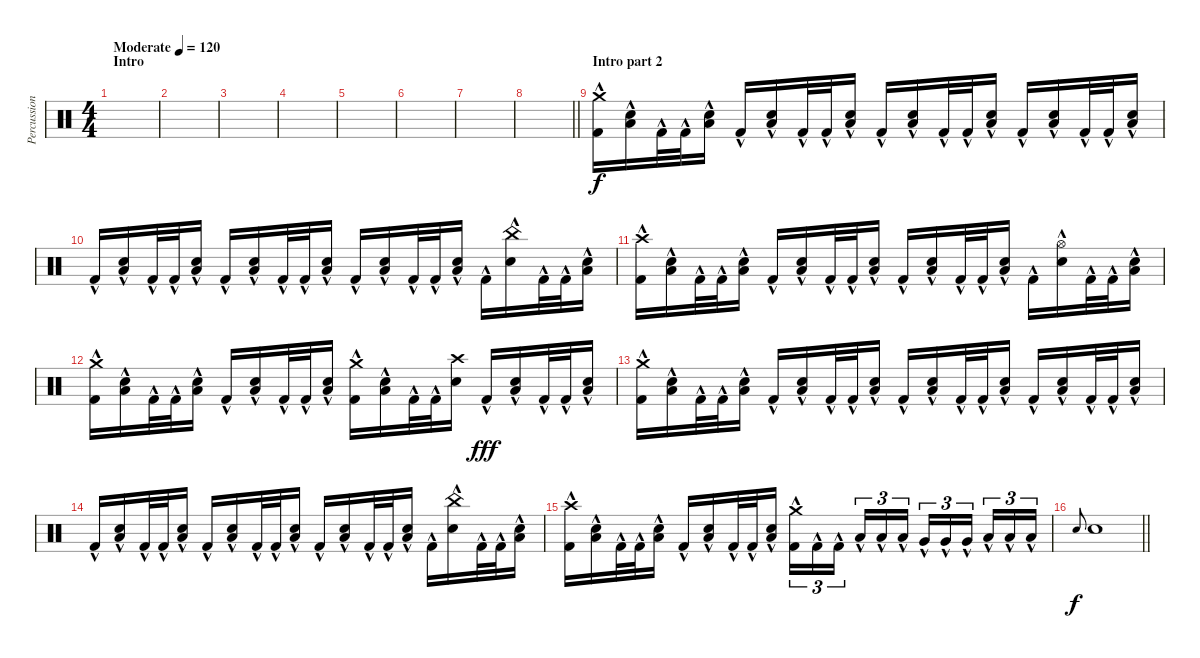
\track ("Percussion" "Percussion") {instrument percussion}
\staff {score}
\articulation defaults
\ts (4 4)
\section ("" "Intro")
\tempo (120 "Moderate")
\clef neutral
\ks c
|
|
|
|
|
|
|
\barLineRight lightlight
|
\section ("" "Intro part 2")
("Crash medium (hit)" "Kick (hit) 2"{hac}).16 ("Low Floor Tom (hit)"{hac} "Snare (hit) 2").16 "Kick (hit) 2"{hac}.32 "Kick (hit) 2"{hac}.32 ("Low Floor Tom (hit)"{hac} "Snare (hit) 2").16 "Kick (hit) 2"{hac}.16 ("Low Floor Tom (hit)"{hac} "Snare (hit) 2").16 "Kick (hit) 2"{hac}.32 "Kick (hit) 2"{hac}.32 ("Low Floor Tom (hit)"{hac} "Snare (hit) 2").16 "Kick (hit) 2"{hac}.16 ("Low Floor Tom (hit)"{hac} "Snare (hit) 2").16 "Kick (hit) 2"{hac}.32 "Kick (hit) 2"{hac}.32 ("Low Floor Tom (hit)"{hac} "Snare (hit) 2").16 "Kick (hit) 2"{hac}.16 ("Low Floor Tom (hit)"{hac} "Snare (hit) 2").16 "Kick (hit) 2"{hac}.32 "Kick (hit) 2"{hac}.32 ("Low Floor Tom (hit)"{hac} "Snare (hit) 2").16 |
"Kick (hit) 2"{hac}.16 ("Low Floor Tom (hit)"{hac} "Snare (hit) 2").16 "Kick (hit) 2"{hac}.32 "Kick (hit) 2"{hac}.32 ("Low Floor Tom (hit)"{hac} "Snare (hit) 2").16 "Kick (hit) 2"{hac}.16 ("Low Floor Tom (hit)"{hac} "Snare (hit) 2").16 "Kick (hit) 2"{hac}.32 "Kick (hit) 2"{hac}.32 ("Low Floor Tom (hit)"{hac} "Snare (hit) 2").16 "Kick (hit) 2"{hac}.16 ("Low Floor Tom (hit)"{hac} "Snare (hit) 2").16 "Kick (hit) 2"{hac}.32 "Kick (hit) 2"{hac}.32 ("Low Floor Tom (hit)"{hac} "Snare (hit) 2").16 "Kick (hit) 2"{hac}.16 ("China (hit)"{hac} "Snare (hit) 2").16 "Kick (hit) 2"{hac}.32 "Kick (hit) 2"{hac}.32 ("Low Floor Tom (hit)"{hac} "Snare (hit) 2").16 |
("Crash high (hit)" "Kick (hit) 2"{hac}).16 ("Low Floor Tom (hit)"{hac} "Snare (hit) 2").16 "Kick (hit) 2"{hac}.32 "Kick (hit) 2"{hac}.32 ("Low Floor Tom (hit)"{hac} "Snare (hit) 2").16 "Kick (hit) 2"{hac}.16 ("Low Floor Tom (hit)"{hac} "Snare (hit) 2").16 "Kick (hit) 2"{hac}.32 "Kick (hit) 2"{hac}.32 ("Low Floor Tom (hit)"{hac} "Snare (hit) 2").16 "Kick (hit) 2"{hac}.16 ("Low Floor Tom (hit)"{hac} "Snare (hit) 2").16 "Kick (hit) 2"{hac}.32 "Kick (hit) 2"{hac}.32 ("Low Floor Tom (hit)"{hac} "Snare (hit) 2").16 "Kick (hit) 2"{hac}.16 ("Hi-Hat (open)"{hac} "Snare (hit) 2").16 "Kick (hit) 2"{hac}.32 "Kick (hit) 2"{hac}.32 ("Low Floor Tom (hit)"{hac} "Snare (hit) 2").16 |
("Crash medium (hit)" "Kick (hit) 2"{hac}).16 ("Low Floor Tom (hit)"{hac} "Snare (hit) 2").16 "Kick (hit) 2"{hac}.32 "Kick (hit) 2"{hac}.32 ("Low Floor Tom (hit)"{hac} "Snare (hit) 2").16 "Kick (hit) 2"{hac}.16 ("Low Floor Tom (hit)"{hac} "Snare (hit) 2").16 "Kick (hit) 2"{hac}.32 "Kick (hit) 2"{hac}.32 ("Low Floor Tom (hit)"{hac} "Snare (hit) 2").16 ("Crash medium (hit)" "Kick (hit) 2"{hac}).16 ("Low Floor Tom (hit)"{hac} "Snare (hit) 2").16 "Kick (hit) 2"{hac}.32 "Kick (hit) 2"{hac}.32 ("Crash high (hit)" "Snare (hit) 2").16{dy f} "Kick (hit) 2"{hac}.16{dy fff} ("Low Floor Tom (hit)"{hac} "Snare (hit) 2").16 "Kick (hit) 2"{hac}.32 "Kick (hit) 2"{hac}.32 ("Low Floor Tom (hit)"{hac} "Snare (hit) 2").16 |
("Crash medium (hit)" "Kick (hit) 2"{hac}).16 ("Low Floor Tom (hit)"{hac} "Snare (hit) 2").16 "Kick (hit) 2"{hac}.32 "Kick (hit) 2"{hac}.32 ("Low Floor Tom (hit)"{hac} "Snare (hit) 2").16 "Kick (hit) 2"{hac}.16 ("Low Floor Tom (hit)"{hac} "Snare (hit) 2").16 "Kick (hit) 2"{hac}.32 "Kick (hit) 2"{hac}.32 ("Low Floor Tom (hit)"{hac} "Snare (hit) 2").16 "Kick (hit) 2"{hac}.16 ("Low Floor Tom (hit)"{hac} "Snare (hit) 2").16 "Kick (hit) 2"{hac}.32 "Kick (hit) 2"{hac}.32 ("Low Floor Tom (hit)"{hac} "Snare (hit) 2").16 "Kick (hit) 2"{hac}.16 ("Low Floor Tom (hit)"{hac} "Snare (hit) 2").16 "Kick (hit) 2"{hac}.32 "Kick (hit) 2"{hac}.32 ("Low Floor Tom (hit)"{hac} "Snare (hit) 2").16 |
"Kick (hit) 2"{hac}.16 ("Low Floor Tom (hit)"{hac} "Snare (hit) 2").16 "Kick (hit) 2"{hac}.32 "Kick (hit) 2"{hac}.32 ("Low Floor Tom (hit)"{hac} "Snare (hit) 2").16 "Kick (hit) 2"{hac}.16 ("Low Floor Tom (hit)"{hac} "Snare (hit) 2").16 "Kick (hit) 2"{hac}.32 "Kick (hit) 2"{hac}.32 ("Low Floor Tom (hit)"{hac} "Snare (hit) 2").16 "Kick (hit) 2"{hac}.16 ("Low Floor Tom (hit)"{hac} "Snare (hit) 2").16 "Kick (hit) 2"{hac}.32 "Kick (hit) 2"{hac}.32 ("Low Floor Tom (hit)"{hac} "Snare (hit) 2").16 "Kick (hit) 2"{hac}.16 ("China (hit)"{hac} "Snare (hit) 2").16 "Kick (hit) 2"{hac}.32 "Kick (hit) 2"{hac}.32 ("Low Floor Tom (hit)"{hac} "Snare (hit) 2").16 |
("Crash high (hit)" "Kick (hit) 2"{hac}).16 ("Low Floor Tom (hit)"{hac} "Snare (hit) 2").16 "Kick (hit) 2"{hac}.32 "Kick (hit) 2"{hac}.32 ("Low Floor Tom (hit)"{hac} "Snare (hit) 2").16 "Kick (hit) 2"{hac}.16 ("Low Floor Tom (hit)"{hac} "Snare (hit) 2").16 "Kick (hit) 2"{hac}.32 "Kick (hit) 2"{hac}.32 ("Low Floor Tom (hit)"{hac} "Snare (hit) 2").16 ("Crash medium (hit)" "Kick (hit) 2"{hac}).16{tu (3 2)} "Kick (hit) 2"{hac}.16{tu (3 2)} "Kick (hit) 2"{hac}.16{tu (3 2) beam splitsecondary} "Low Tom (hit)"{hac}.16{tu (3 2)} "Low Tom (hit)"{hac}.16{tu (3 2)} "Low Tom (hit)"{hac}.16{tu (3 2)} "Very Low Tom (hit)"{hac}.16{tu (3 2)} "Very Low Tom (hit)"{hac}.16{tu (3 2)} "Very Low Tom (hit)"{hac}.16{tu (3 2) beam splitsecondary} "Low Floor Tom (hit)"{hac}.16{tu (3 2)} "Low Floor Tom (hit)"{hac}.16{tu (3 2)} "Low Floor Tom (hit)"{hac}.16{tu (3 2)} |
\barLineRight lightlight "Snare (hit) 2".8{gr onbeat dy f} "Snare (hit) 2".1
